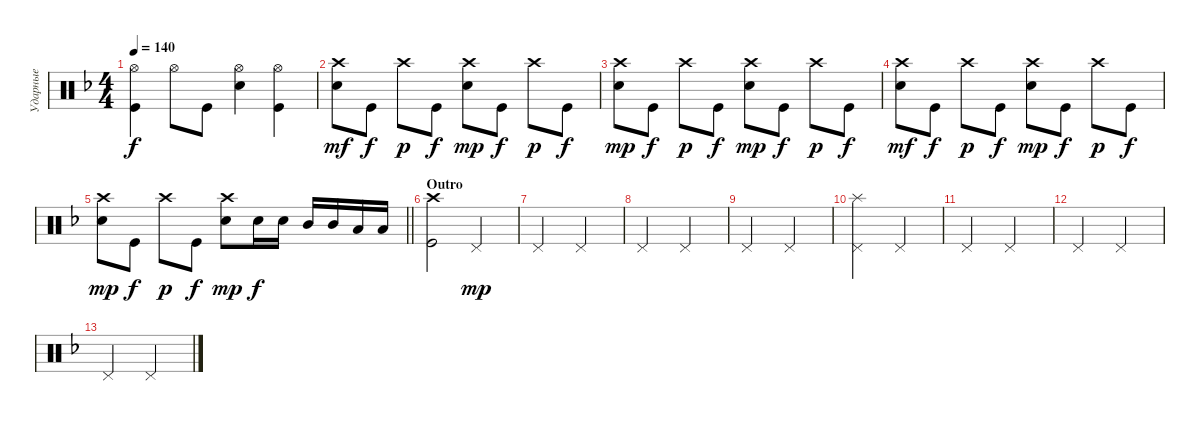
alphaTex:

\track ("Ударные" "Ударные") {instrument percussion}
\staff {score}
\articulation defaults
\ts (4 4)
\tempo 140
\clef neutral
\ks dminor
("Kick (hit)" "Hi-Hat (open)").4{dy f} "Hi-Hat (open)".8 "Kick (hit)".8 ("Snare (hit) 2" "Hi-Hat (open)").4 ("Kick (hit)" "Hi-Hat (open)").4 |
("Snare (hit) 2" "Crash high (hit)").8{dy mf} "Kick (hit)".8{dy f} "Crash high (hit)".8{dy p} "Kick (hit)".8{dy f} ("Snare (hit) 2" "Crash high (hit)").8{dy mp} "Kick (hit)".8{dy f} "Crash high (hit)".8{dy p} "Kick (hit)".8{dy f} |
("Snare (hit) 2" "Crash high (hit)").8{dy mp} "Kick (hit)".8{dy f} "Crash high (hit)".8{dy p} "Kick (hit)".8{dy f} ("Snare (hit) 2" "Crash high (hit)").8{dy mp} "Kick (hit)".8{dy f} "Crash high (hit)".8{dy p} "Kick (hit)".8{dy f} |
("Snare (hit) 2" "Crash high (hit)").8{dy mf} "Kick (hit)".8{dy f} "Crash high (hit)".8{dy p} "Kick (hit)".8{dy f} ("Snare (hit) 2" "Crash high (hit)").8{dy mp} "Kick (hit)".8{dy f} "Crash high (hit)".8{dy p} "Kick (hit)".8{dy f} |
\barLineRight lightlight
("Snare (hit) 2" "Crash high (hit)").8{dy mp} "Kick (hit)".8{dy f} "Crash high (hit)".8{dy p} "Kick (hit)".8{dy f} ("Snare (hit) 2" "Crash high (hit)").8{dy mp} "Snare (hit) 2".16{dy f} "Snare (hit) 2".16 "Mid Tom (hit)".16 "Mid Tom (hit)".16 "Low Tom (hit)".16 "Low Tom (hit)".16 |
\section ("" "Outro")
("Kick (hit)" "Crash high (hit)").2 "Pedal Hi-Hat (hit)".2{dy mp} |
"Pedal Hi-Hat (hit)".2 "Pedal Hi-Hat (hit)".2 |
"Pedal Hi-Hat (hit)".2 "Pedal Hi-Hat (hit)".2 |
"Pedal Hi-Hat (hit)".2 "Pedal Hi-Hat (hit)".2 |
("Pedal Hi-Hat (hit)" "Splash (hit)").2 "Pedal Hi-Hat (hit)".2 |
"Pedal Hi-Hat (hit)".2 "Pedal Hi-Hat (hit)".2 |
"Pedal Hi-Hat (hit)".2 "Pedal Hi-Hat (hit)".2 |
"Pedal Hi-Hat (hit)".2 "Pedal Hi-Hat (hit)".2
